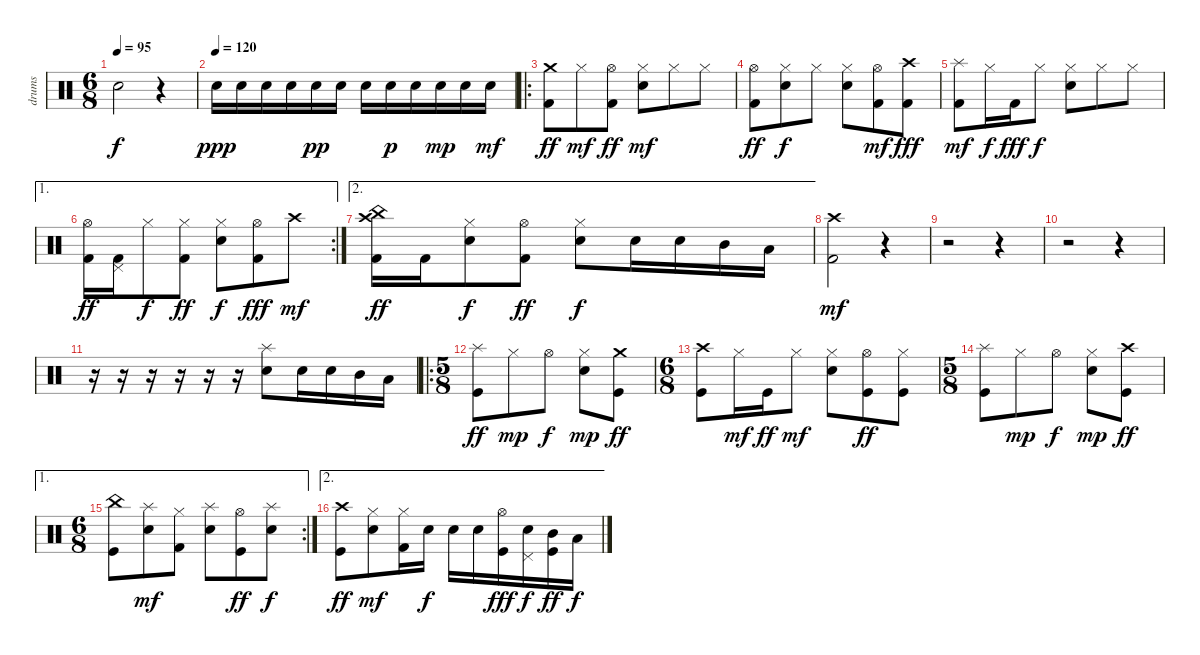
\track ("drums" "drums") {instrument percussion}
\staff {score}
\articulation defaults
\ts (6 8)
\tempo 95
\clef neutral
\ks c "Snare (hit)".2{dy f}
r.4 |
\tempo (120)
"Electric Snare (hit)".16{dy ppp} "Electric Snare (hit)".16 "Electric Snare (hit)".16 "Electric Snare (hit)".16 "Electric Snare (hit)".16{dy pp} "Electric Snare (hit)".16 "Electric Snare (hit)".16 "Electric Snare (hit)".16{dy p} "Electric Snare (hit)".16 "Electric Snare (hit)".16{dy mp} "Electric Snare (hit)".16 "Electric Snare (hit)".16{dy mf} |
\ro
("Crash medium (hit)" "Kick (hit) 2").8{dy ff} "Hi-Hat (closed)".8{dy mf} ("Hi-Hat (open)" "Kick (hit) 2").8{dy ff} ("Hi-Hat (closed)" "Electric Snare (hit)").8{dy mf} "Hi-Hat (closed)".8 "Hi-Hat (closed)".8 |
("Hi-Hat (open)" "Kick (hit) 2").8{dy ff} ("Hi-Hat (closed)" "Electric Snare (hit)").8{dy f} "Hi-Hat (closed)".8 ("Hi-Hat (closed)" "Electric Snare (hit)").8 ("Hi-Hat (open)" "Kick (hit) 2").8{dy mf} ("Crash high (hit)" "Kick (hit) 2").8{dy fff} |
("Splash (hit)" "Kick (hit) 2").8{dy mf} "Hi-Hat (closed)".16{dy f} "Kick (hit) 2".16{dy fff} "Hi-Hat (closed)".8{dy f} ("Hi-Hat (closed)" "Electric Snare (hit)").8 "Hi-Hat (closed)".8 "Hi-Hat (closed)".8 |
\ae 1
\rc 2
("Hi-Hat (open)" "Kick (hit) 2").16{dy ff} ("Pedal Hi-Hat (hit)" "Kick (hit) 2").16 "Hi-Hat (closed)".8{dy f} ("Hi-Hat (closed)" "Kick (hit) 2").8{dy ff} ("Hi-Hat (closed)" "Electric Snare (hit)").8{dy f} ("Hi-Hat (open)" "Kick (hit) 2").8{dy fff} "Crash high (hit)".8{dy mf} |
\ae 2
("Crash high (hit)" "China (hit)" "Kick (hit) 2").16{dy ff} "Kick (hit) 2".16 ("Hi-Hat (closed)" "Electric Snare (hit)").8{dy f} ("Hi-Hat (open)" "Kick (hit) 2").8{dy ff} ("Hi-Hat (closed)" "Electric Snare (hit)").8{dy f} "Electric Snare (hit)".16 "Electric Snare (hit)".16 "Mid Tom (hit)".16 "Low Tom (hit)".16 |
("Crash high (hit)" "Kick (hit) 2").2{dy mf} r.4 |
r.2 r.4 |
r.2 r.4 |
r.16 r.16 r.16 r.16 r.16 r.16 ("Splash (hit)" "Electric Snare (hit)").8 "Electric Snare (hit)".16 "Electric Snare (hit)".16 "Mid Tom (hit)".16 "Low Tom (hit)".16 |
\ro
\ts (5 8)
("Splash (hit)" "Kick (hit)").8{dy ff} "Hi-Hat (closed)".8{dy mp} "Hi-Hat (open)".8{dy f} ("Hi-Hat (closed)" "Electric Snare (hit)").8{dy mp} ("Crash medium (hit)" "Kick (hit)").8{dy ff} |
\ts (6 8)
("Crash high (hit)" "Kick (hit)").8 "Hi-Hat (closed)".16{dy mf} "Kick (hit)".16{dy ff} "Hi-Hat (closed)".8{dy mf} ("Hi-Hat (closed)" "Electric Snare (hit)").8 ("Hi-Hat (open)" "Kick (hit)").8{dy ff} ("Hi-Hat (closed)" "Kick (hit)").8 |
\ts (5 8)
("Splash (hit)" "Kick (hit)").8 "Hi-Hat (closed)".8{dy mp} "Hi-Hat (open)".8{dy f} ("Hi-Hat (closed)" "Electric Snare (hit)").8{dy mp} ("Crash high (hit)" "Kick (hit)").8{dy ff} |
\ae 1
\rc 2
\ts (6 8)
("China (hit)" "Kick (hit)").8 ("Splash (hit)" "Electric Snare (hit)").8{dy mf} ("Hi-Hat (closed)" "Kick (hit) 2").8 ("Splash (hit)" "Electric Snare (hit)").8 ("Hi-Hat (open)" "Kick (hit)").8{dy ff} ("Splash (hit)" "Electric Snare (hit)").8{dy f} |
\ae 2
("Crash high (hit)" "Kick (hit)").8{dy ff} ("Hi-Hat (closed)" "Electric Snare (hit)").8{dy mf} ("Hi-Hat (closed)" "Kick (hit) 2").16 "Electric Snare (hit)".16{dy f} "Electric Snare (hit)".16 "Electric Snare (hit)".16 ("Hi-Hat (open)" "Kick (hit)").16{dy fff} ("Pedal Hi-Hat (hit)" "Electric Snare (hit)").16{dy f} ("Mid Tom (hit)" "Kick (hit)").16{dy ff} "Low Tom (hit)".16{dy f}
